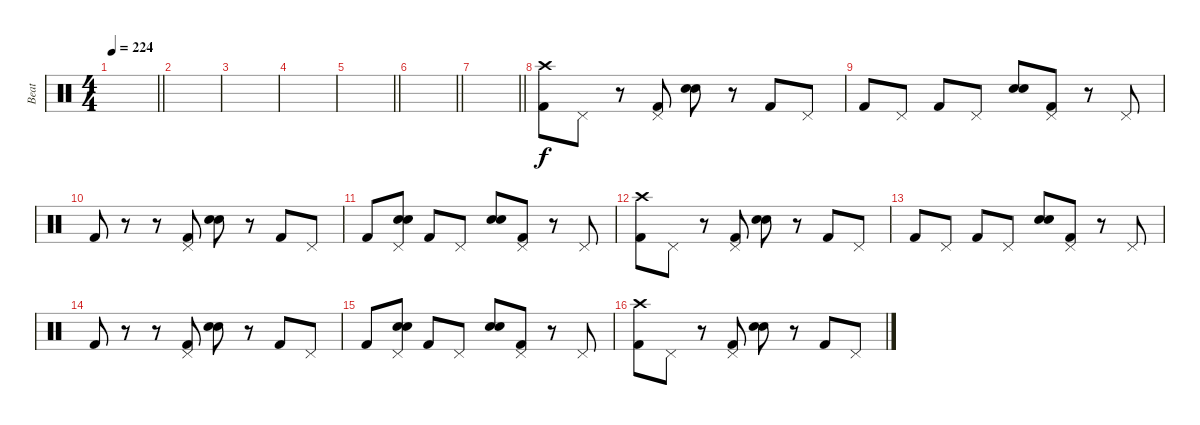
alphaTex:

\track ("Beat" "Beat") {instrument percussion}
\staff {score}
\articulation defaults
\ts (4 4)
\tempo 224
\clef neutral
\barLineRight lightlight
\ks c
|
|
|
|
\barLineRight lightlight
|
\section ("" " ")
\barLineRight lightlight
|
\barLineRight lightlight
|
\section ("" " ")
("Kick (hit) 2" "Crash high (hit)").8 "Pedal Hi-Hat (hit)".8 r.8 ("Kick (hit) 2" "Pedal Hi-Hat (hit)").8 ("Snare (hit) 2" "Hand Clap (hit)").8 r.8 "Kick (hit) 2".8 "Pedal Hi-Hat (hit)".8 |
"Kick (hit) 2".8 "Pedal Hi-Hat (hit)".8 "Kick (hit) 2".8 "Pedal Hi-Hat (hit)".8 ("Snare (hit) 2" "Hand Clap (hit)").8 ("Kick (hit) 2" "Pedal Hi-Hat (hit)").8 r.8 "Pedal Hi-Hat (hit)".8 |
"Kick (hit) 2".8 r.8 r.8 ("Kick (hit) 2" "Pedal Hi-Hat (hit)").8 ("Snare (hit) 2" "Hand Clap (hit)").8 r.8 "Kick (hit) 2".8 "Pedal Hi-Hat (hit)".8 |
"Kick (hit) 2".8 ("Pedal Hi-Hat (hit)" "Snare (hit) 2" "Hand Clap (hit)").8 "Kick (hit) 2".8 "Pedal Hi-Hat (hit)".8 ("Snare (hit) 2" "Hand Clap (hit)").8 ("Kick (hit) 2" "Pedal Hi-Hat (hit)").8 r.8 "Pedal Hi-Hat (hit)".8 |
("Kick (hit) 2" "Crash high (hit)").8 "Pedal Hi-Hat (hit)".8 r.8 ("Kick (hit) 2" "Pedal Hi-Hat (hit)").8 ("Snare (hit) 2" "Hand Clap (hit)").8 r.8 "Kick (hit) 2".8 "Pedal Hi-Hat (hit)".8 |
"Kick (hit) 2".8 "Pedal Hi-Hat (hit)".8 "Kick (hit) 2".8 "Pedal Hi-Hat (hit)".8 ("Snare (hit) 2" "Hand Clap (hit)").8 ("Kick (hit) 2" "Pedal Hi-Hat (hit)").8 r.8 "Pedal Hi-Hat (hit)".8 |
"Kick (hit) 2".8 r.8 r.8 ("Kick (hit) 2" "Pedal Hi-Hat (hit)").8 ("Snare (hit) 2" "Hand Clap (hit)").8 r.8 "Kick (hit) 2".8 "Pedal Hi-Hat (hit)".8 |
"Kick (hit) 2".8 ("Pedal Hi-Hat (hit)" "Snare (hit) 2" "Hand Clap (hit)").8 "Kick (hit) 2".8 "Pedal Hi-Hat (hit)".8 ("Snare (hit) 2" "Hand Clap (hit)").8 ("Kick (hit) 2" "Pedal Hi-Hat (hit)").8 r.8 "Pedal Hi-Hat (hit)".8 |
("Kick (hit) 2" "Crash high (hit)").8 "Pedal Hi-Hat (hit)".8 r.8 ("Kick (hit) 2" "Pedal Hi-Hat (hit)").8 ("Snare (hit) 2" "Hand Clap (hit)").8 r.8 "Kick (hit) 2".8 "Pedal Hi-Hat (hit)".8
